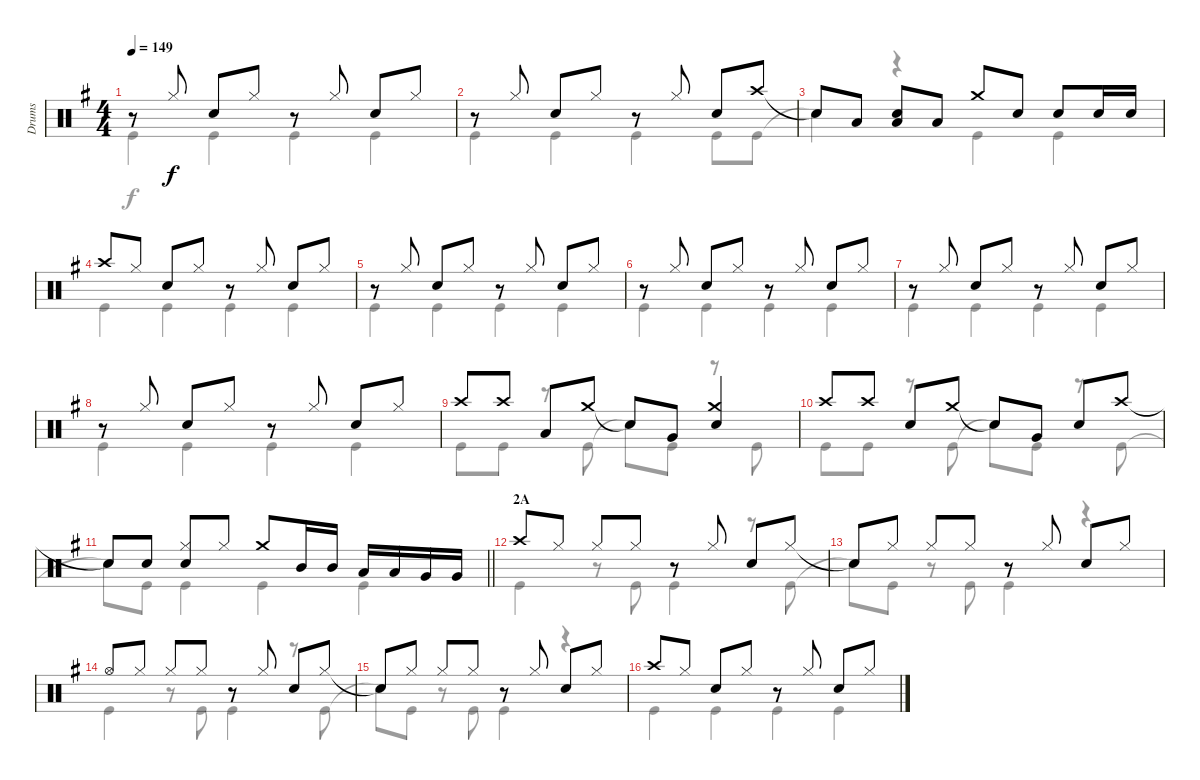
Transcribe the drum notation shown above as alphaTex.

\track ("Drums" "Drums") {instrument percussion}
\staff {score}
\articulation defaults
\voice
\ts (4 4)
\tempo 149
\clef neutral
\ks g
r.8{dy f} "Hi-Hat (closed)".8 "Snare (hit) 2".8 "Hi-Hat (closed)".8 r.8 "Hi-Hat (closed)".8 "Snare (hit) 2".8 "Hi-Hat (closed)".8 |
r.8 "Hi-Hat (closed)".8 "Snare (hit) 2".8 "Hi-Hat (closed)".8 r.8 "Hi-Hat (closed)".8 "Snare (hit) 2".8 "Crash high (hit)".8 |
"Snare (hit)"{t}.8 "Low Tom (hit)".8 ("Snare (hit) 2" "Low Tom (hit)").8 "Low Tom (hit)".8 "Crash medium (hit)".8 "Snare (hit) 2".8 "Snare (hit) 2".8 "Snare (hit) 2".16 "Snare (hit) 2".16 |
"Crash high (hit)".8 "Hi-Hat (closed)".8 "Snare (hit) 2".8 "Hi-Hat (closed)".8 r.8 "Hi-Hat (closed)".8 "Snare (hit) 2".8 "Hi-Hat (closed)".8 |
r.8 "Hi-Hat (closed)".8 "Snare (hit) 2".8 "Hi-Hat (closed)".8 r.8 "Hi-Hat (closed)".8 "Snare (hit) 2".8 "Hi-Hat (closed)".8 |
r.8 "Hi-Hat (closed)".8 "Snare (hit) 2".8 "Hi-Hat (closed)".8 r.8 "Hi-Hat (closed)".8 "Snare (hit) 2".8 "Hi-Hat (closed)".8 |
r.8 "Hi-Hat (closed)".8 "Snare (hit) 2".8 "Hi-Hat (closed)".8 r.8 "Hi-Hat (closed)".8 "Snare (hit) 2".8 "Hi-Hat (closed)".8 |
r.8 "Hi-Hat (closed)".8 "Snare (hit) 2".8 "Hi-Hat (closed)".8 r.8 "Hi-Hat (closed)".8 "Snare (hit) 2".8 "Hi-Hat (closed)".8 |
"Crash high (hit)".8 "Crash high (hit)".8 "Low Tom (hit)".8 "Crash medium (hit)".8 "Snare (hit)"{t}.8 "Very Low Tom (hit)".8 ("Crash medium (hit)" "Snare (hit) 2").4 |
"Crash high (hit)".8 "Crash high (hit)".8 "Snare (hit) 2".8 "Crash medium (hit)".8 "Snare (hit)"{t}.8 "Very Low Tom (hit)".8 "Snare (hit) 2".8 "Crash high (hit)".8 |
\barLineRight lightlight "Snare (hit)"{t}.8 "Snare (hit) 2".8
("Hi-Hat (closed)" "Snare (hit) 2").8 "Hi-Hat (closed)".8 "Crash medium (hit)".8 "Mid Tom (hit)".16 "Mid Tom (hit)".16 "Low Tom (hit)".16 "Low Tom (hit)".16 "Very Low Tom (hit)".16 "Very Low Tom (hit)".16 |
\section ("" "2A")
"Crash high (hit)".8 "Hi-Hat (closed)".8 "Hi-Hat (closed)".8 "Hi-Hat (closed)".8 r.8 "Hi-Hat (closed)".8 "Snare (hit) 2".8 "Hi-Hat (closed)".8 |
"Snare (hit)"{t}.8 "Hi-Hat (closed)".8 "Hi-Hat (closed)".8 "Hi-Hat (closed)".8 r.8 "Hi-Hat (closed)".8 "Snare (hit) 2".8 "Hi-Hat (closed)".8 |
"Hi-Hat (open)".8 "Hi-Hat (closed)".8 "Hi-Hat (closed)".8 "Hi-Hat (closed)".8 r.8 "Hi-Hat (closed)".8 "Snare (hit) 2".8 "Hi-Hat (closed)".8 |
"Snare (hit)"{t}.8 "Hi-Hat (closed)".8 "Hi-Hat (closed)".8 "Hi-Hat (closed)".8 r.8 "Hi-Hat (closed)".8 "Snare (hit) 2".8 "Hi-Hat (closed)".8 |
"Crash high (hit)".8 "Hi-Hat (closed)".8 "Snare (hit) 2".8 "Hi-Hat (closed)".8 r.8 "Hi-Hat (closed)".8 "Snare (hit) 2".8 "Hi-Hat (closed)".8
\voice
\clef neutral
\ottava regular
\simile none
\ks g "Kick (hit)".4{dy f} "Kick (hit)".4 "Kick (hit)".4 "Kick (hit)".4
|
"Kick (hit)".4 "Kick (hit)".4 "Kick (hit)".4 "Kick (hit)".8 "Kick (hit)".8 |
"Snare (hit)"{t}.4 r.4 "Kick (hit)".4 "Kick (hit)".4 |
"Kick (hit)".4 "Kick (hit)".4 "Kick (hit)".4 "Kick (hit)".4 |
"Kick (hit)".4 "Kick (hit)".4 "Kick (hit)".4 "Kick (hit)".4 |
"Kick (hit)".4 "Kick (hit)".4 "Kick (hit)".4 "Kick (hit)".4 |
"Kick (hit)".4 "Kick (hit)".4 "Kick (hit)".4 "Kick (hit)".4 |
"Kick (hit)".4 "Kick (hit)".4 "Kick (hit)".4 "Kick (hit)".4 |
"Kick (hit)".8 "Kick (hit)".8 r.8 "Kick (hit)".8 "Snare (hit)"{t}.8 "Kick (hit)".8 r.8 "Kick (hit)".8 |
"Kick (hit)".8 "Kick (hit)".8 r.8 "Kick (hit)".8 "Snare (hit)"{t}.8 "Kick (hit)".8 r.8 "Kick (hit)".8 |
\barLineRight lightlight "Snare (hit)"{t}.8 "Kick (hit)".8 "Kick (hit)".4 "Kick (hit)".4 "Kick (hit)".4
|
"Kick (hit)".4 r.8 "Kick (hit)".8 "Kick (hit)".4 r.8 "Kick (hit)".8 |
"Snare (hit)"{t}.8 "Kick (hit)".8 r.8 "Kick (hit)".8 "Kick (hit)".4 r.4 |
"Kick (hit)".4 r.8 "Kick (hit)".8 "Kick (hit)".4 r.8 "Kick (hit)".8 |
"Snare (hit)"{t}.8 "Kick (hit)".8 r.8 "Kick (hit)".8 "Kick (hit)".4 r.4 |
"Kick (hit)".4 "Kick (hit)".4 "Kick (hit)".4 "Kick (hit)".4
